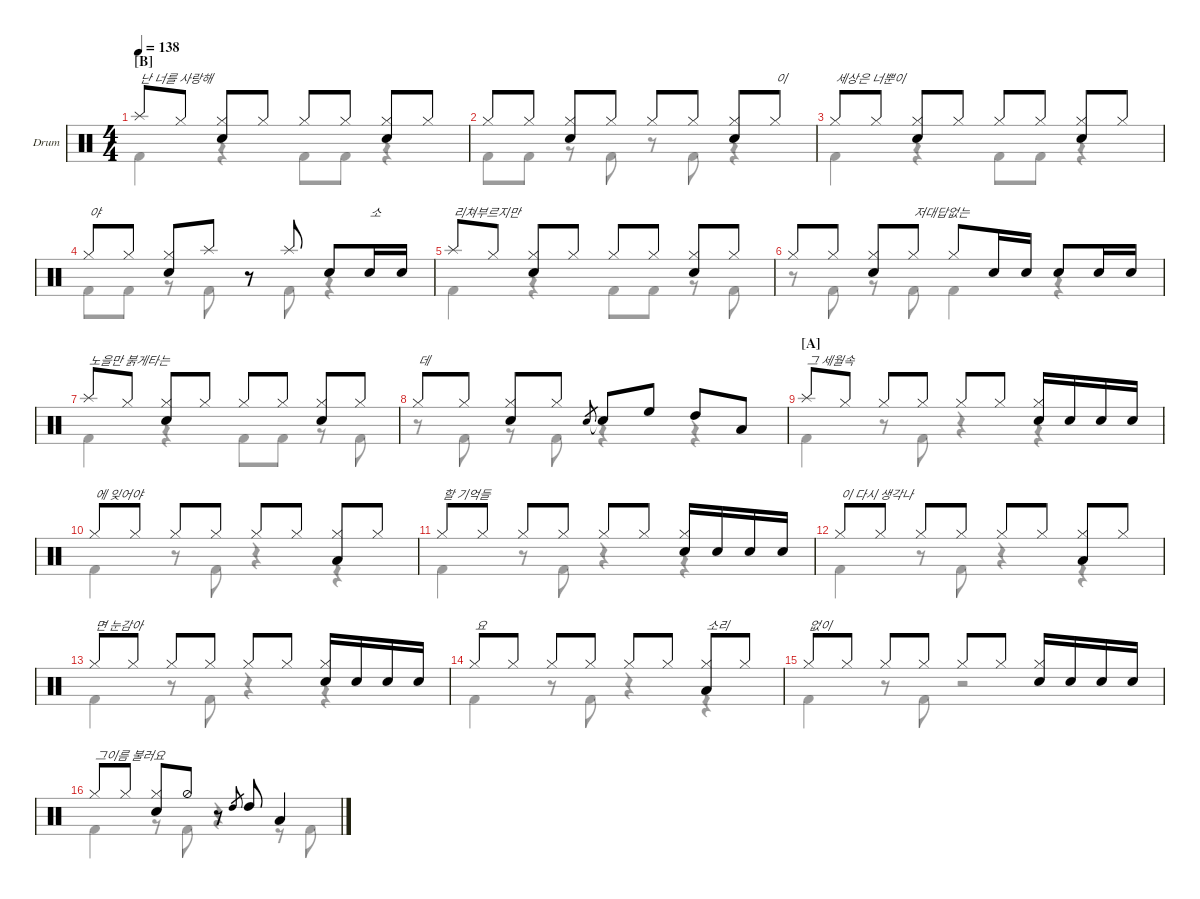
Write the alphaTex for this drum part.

\defaultSystemsLayout 4
\hideDynamics
\bracketExtendMode nobrackets
\firstSystemTrackNameOrientation horizontal
\track ("Drumkit" "Drum") {instrument percussion}
\staff {score}
\articulation defaults
\voice
\ts (4 4)
\section ("B" "")
\tempo 138
\clef neutral
\ks c "Splash (hit)".8{txt "난 너를 사랑해" dy mf beam Up} "Hi-Hat (closed)".8{beam Up}
("Hi-Hat (closed)" "Snare (hit) 2").8{beam Up} "Hi-Hat (closed)".8{beam Up} "Hi-Hat (closed)".8{beam Up} "Hi-Hat (closed)".8{beam Up} ("Hi-Hat (closed)" "Snare (hit) 2").8{beam Up} "Hi-Hat (closed)".8{beam Up} |
"Hi-Hat (closed)".8{beam Up} "Hi-Hat (closed)".8{beam Up} ("Hi-Hat (closed)" "Snare (hit) 2").8{beam Up} "Hi-Hat (closed)".8{beam Up} "Hi-Hat (closed)".8{beam Up} "Hi-Hat (closed)".8{beam Up} ("Hi-Hat (closed)" "Snare (hit) 2").8{beam Up} "Hi-Hat (closed)".8{txt "이" beam Up} |
"Hi-Hat (closed)".8{txt "세상은 너뿐이" beam Up} "Hi-Hat (closed)".8{beam Up} ("Hi-Hat (closed)" "Snare (hit) 2").8{beam Up} "Hi-Hat (closed)".8{beam Up} "Hi-Hat (closed)".8{beam Up} "Hi-Hat (closed)".8{beam Up} ("Hi-Hat (closed)" "Snare (hit) 2").8{beam Up} "Hi-Hat (closed)".8{beam Up} |
"Hi-Hat (closed)".8{txt "야" beam Up} "Hi-Hat (closed)".8{beam Up} ("Hi-Hat (closed)" "Snare (hit) 2").8{beam Up} "Splash (hit)".8{beam Up} r.8{beam Up} "Splash (hit)".8{beam Up} "Snare (hit) 2".8{beam Up} "Snare (hit) 2".16{txt "소" beam Up} "Snare (hit) 2".16{beam Up} |
"Splash (hit)".8{txt "리쳐부르지만" beam Up} "Hi-Hat (closed)".8{beam Up} ("Hi-Hat (closed)" "Snare (hit) 2").8{beam Up} "Hi-Hat (closed)".8{beam Up} "Hi-Hat (closed)".8{beam Up} "Hi-Hat (closed)".8{beam Up} ("Hi-Hat (closed)" "Snare (hit) 2").8{beam Up} "Hi-Hat (closed)".8{beam Up} |
"Hi-Hat (closed)".8{beam Up} "Hi-Hat (closed)".8{beam Up} ("Hi-Hat (closed)" "Snare (hit) 2").8{beam Up} "Hi-Hat (closed)".8{txt "저대답없는" beam Up} "Hi-Hat (closed)".8{beam Up} "Snare (hit) 2".16{beam Up} "Snare (hit) 2".16{beam Up} "Snare (hit) 2".8{beam Up} "Snare (hit) 2".16{beam Up} "Snare (hit) 2".16{beam Up} |
"Splash (hit)".8{txt "노을만 붉게타는" beam Up} "Hi-Hat (closed)".8{beam Up} ("Hi-Hat (closed)" "Snare (hit) 2").8{beam Up} "Hi-Hat (closed)".8{beam Up} "Hi-Hat (closed)".8{beam Up} "Hi-Hat (closed)".8{beam Up} ("Hi-Hat (closed)" "Snare (hit) 2").8{beam Up} "Hi-Hat (closed)".8{beam Up} |
"Hi-Hat (closed)".8{txt "데" beam Up} "Hi-Hat (closed)".8{beam Up} ("Hi-Hat (closed)" "Snare (hit) 2").8{beam Up} "Hi-Hat (closed)".8{beam Up} "Snare (hit) 2".8{gr beam Up} "Snare (hit) 2"{t}.8{beam Up} "High Floor Tom (hit)".8{beam Up} "High Tom (hit)".8{beam Up} "Low Tom (hit)".8{beam Up} |
\section ("A" "")
"Splash (hit)".8{txt "그 세월속" beam Up} "Hi-Hat (closed)".8{beam Up} "Hi-Hat (closed)".8{beam Up} "Hi-Hat (closed)".8{beam Up} "Hi-Hat (closed)".8{beam Up} "Hi-Hat (closed)".8{beam Up} ("Hi-Hat (closed)" "Snare (hit) 2").16{beam Up} "Snare (hit) 2".16{beam Up} "Snare (hit) 2".16{beam Up} "Snare (hit) 2".16{beam Up} |
"Hi-Hat (closed)".8{txt "에 잊어야" beam Up} "Hi-Hat (closed)".8{beam Up} "Hi-Hat (closed)".8{beam Up} "Hi-Hat (closed)".8{beam Up} "Hi-Hat (closed)".8{beam Up} "Hi-Hat (closed)".8{beam Up} ("Hi-Hat (closed)" "Low Tom (hit)").8{beam Up} "Hi-Hat (closed)".8{beam Up} |
"Hi-Hat (closed)".8{txt "할 기억들" beam Up} "Hi-Hat (closed)".8{beam Up} "Hi-Hat (closed)".8{beam Up} "Hi-Hat (closed)".8{beam Up} "Hi-Hat (closed)".8{beam Up} "Hi-Hat (closed)".8{beam Up} ("Hi-Hat (closed)" "Snare (hit) 2").16{beam Up} "Snare (hit) 2".16{beam Up} "Snare (hit) 2".16{beam Up} "Snare (hit) 2".16{beam Up} |
"Hi-Hat (closed)".8{txt "이 다시 생각나" beam Up} "Hi-Hat (closed)".8{beam Up} "Hi-Hat (closed)".8{beam Up} "Hi-Hat (closed)".8{beam Up} "Hi-Hat (closed)".8{beam Up} "Hi-Hat (closed)".8{beam Up} ("Hi-Hat (closed)" "Low Tom (hit)").8{beam Up} "Hi-Hat (closed)".8{beam Up} |
"Hi-Hat (closed)".8{txt "면 눈감아" beam Up} "Hi-Hat (closed)".8{beam Up} "Hi-Hat (closed)".8{beam Up} "Hi-Hat (closed)".8{beam Up} "Hi-Hat (closed)".8{beam Up} "Hi-Hat (closed)".8{beam Up} ("Hi-Hat (closed)" "Snare (hit) 2").16{beam Up} "Snare (hit) 2".16{beam Up} "Snare (hit) 2".16{beam Up} "Snare (hit) 2".16{beam Up} |
"Hi-Hat (closed)".8{txt "요 " beam Up} "Hi-Hat (closed)".8{beam Up} "Hi-Hat (closed)".8{beam Up} "Hi-Hat (closed)".8{beam Up} "Hi-Hat (closed)".8{beam Up} "Hi-Hat (closed)".8{beam Up} ("Hi-Hat (closed)" "Low Tom (hit)").8{txt "소리" beam Up} "Hi-Hat (closed)".8{beam Up} |
"Hi-Hat (closed)".8{txt "없이" beam Up} "Hi-Hat (closed)".8{beam Up} "Hi-Hat (closed)".8{beam Up} "Hi-Hat (closed)".8{beam Up} "Hi-Hat (closed)".8{beam Up} "Hi-Hat (closed)".8{beam Up} ("Hi-Hat (closed)" "Snare (hit) 2").16{beam Up} "Snare (hit) 2".16{beam Up} "Snare (hit) 2".16{beam Up} "Snare (hit) 2".16{beam Up} |
"Hi-Hat (closed)".8{txt "그이름 불러요" beam Up} "Hi-Hat (closed)".8{beam Up} ("Hi-Hat (closed)" "Snare (hit) 2").8{beam Up} "Hi-Hat (half)".8{beam Up} r.8{beam Up} "High Tom (hit)".8{gr beam Up} "High Tom (hit)".8{beam Up} "Low Tom (hit)".4{beam Up}
\voice
\clef neutral
\ottava regular
\simile none
\ks c
|
|
|
|
|
|
|
|
|
|
|
|
|
|
|
\voice
\clef neutral
\ottava regular
\simile none
\ks c "Kick (hit) 2".4{dy mf beam Down}
r.4{beam Down} "Kick (hit) 2".8{beam Down} "Kick (hit) 2".8{beam Down} r.4{beam Down} |
"Kick (hit) 2".8{beam Down} "Kick (hit) 2".8{beam Down} r.8{beam Down} "Kick (hit) 2".8{beam Down} r.8{beam Down} "Kick (hit) 2".8{beam Down} r.4{beam Down} |
"Kick (hit) 2".4{beam Down} r.4{beam Down} "Kick (hit) 2".8{beam Down} "Kick (hit) 2".8{beam Down} r.4{beam Down} |
"Kick (hit) 2".8{beam Down} "Kick (hit) 2".8{beam Down} r.8{beam Down} "Kick (hit) 2".8{beam Down} r.8{beam Down} "Kick (hit) 2".8{beam Down} r.4{beam Down} |
"Kick (hit) 2".4{beam Down} r.4{beam Down} "Kick (hit) 2".8{beam Down} "Kick (hit) 2".8{beam Down} r.8{beam Down} "Kick (hit) 2".8{beam Down} |
r.8{beam Down} "Kick (hit) 2".8{beam Down} r.8{beam Down} "Kick (hit) 2".8{beam Down} "Kick (hit) 2".4{beam Down} r.4{beam Down} |
"Kick (hit) 2".4{beam Down} r.4{beam Down} "Kick (hit) 2".8{beam Down} "Kick (hit) 2".8{beam Down} r.8{beam Down} "Kick (hit) 2".8{beam Down} |
r.8{beam Down} "Kick (hit) 2".8{beam Down} r.8{beam Down} "Kick (hit) 2".8{beam Down} r.4{beam Down} r.4{beam Down} |
"Kick (hit) 2".4{beam Down} r.8{beam Down} "Kick (hit) 2".8{beam Down} r.4{beam Down} r.4{beam Down} |
"Kick (hit) 2".4{beam Down} r.8{beam Down} "Kick (hit) 2".8{beam Down} r.4{beam Down} r.4{beam Down} |
"Kick (hit) 2".4{beam Down} r.8{beam Down} "Kick (hit) 2".8{beam Down} r.4{beam Down} r.4{beam Down} |
"Kick (hit) 2".4{beam Down} r.8{beam Down} "Kick (hit) 2".8{beam Down} r.4{beam Down} r.4{beam Down} |
"Kick (hit) 2".4{beam Down} r.8{beam Down} "Kick (hit) 2".8{beam Down} r.4{beam Down} r.4{beam Down} |
"Kick (hit) 2".4{beam Down} r.8{beam Down} "Kick (hit) 2".8{beam Down} r.4{beam Down} r.4{beam Down} |
"Kick (hit) 2".4{beam Down} r.8{beam Down} "Kick (hit) 2".8{beam Down} r.2{beam Down} |
"Kick (hit) 2".4{beam Down} r.8{beam Down} "Kick (hit) 2".8{beam Down} r.4{beam Down} r.8{beam Down} "Kick (hit) 2".8{beam Down}
